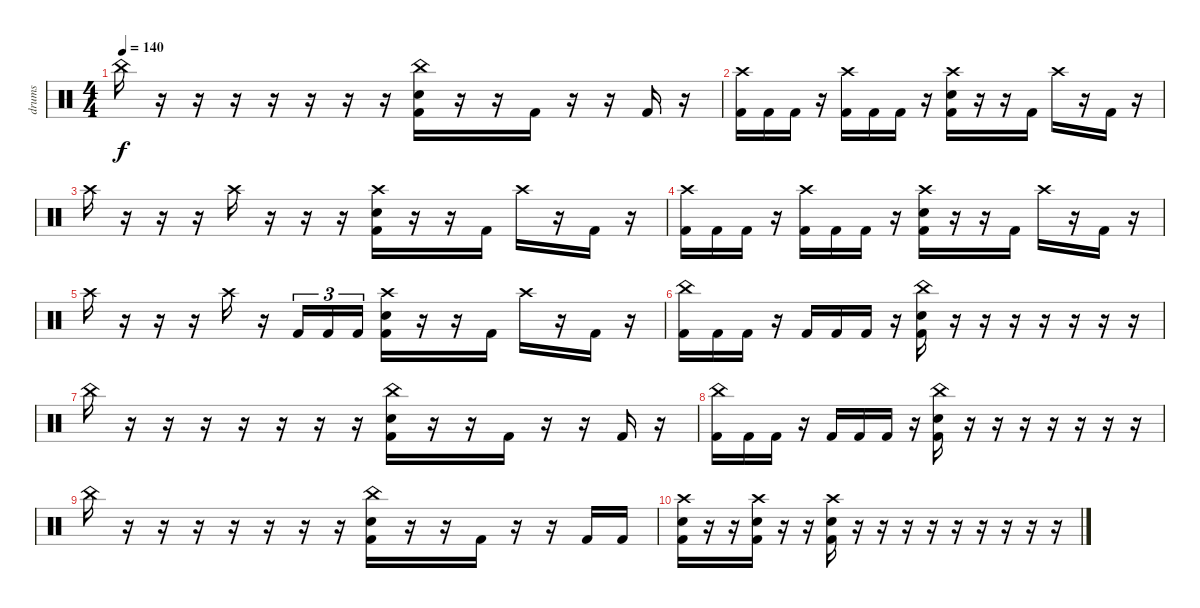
\track ("drums" "drums") {instrument percussion}
\staff {score}
\articulation defaults
\ts (4 4)
\tempo 140
\clef neutral
\ks c "China (hit)".16{dy f}
r.16 r.16 r.16 r.16 r.16 r.16 r.16 ("China (hit)" "Electric Snare (hit)" "Kick (hit) 2").16 r.16 r.16 "Kick (hit) 2".16 r.16 r.16 "Kick (hit) 2".16 r.16 |
("Kick (hit) 2" "Crash high (hit)").16 "Kick (hit) 2".16 "Kick (hit) 2".16 r.16 ("Kick (hit) 2" "Crash high (hit)").16 "Kick (hit) 2".16 "Kick (hit) 2".16 r.16 ("Kick (hit) 2" "Crash high (hit)" "Electric Snare (hit)").16 r.16 r.16 "Kick (hit) 2".16 "Crash high (hit)".16 r.16 "Kick (hit) 2".16 r.16 |
"Crash high (hit)".16 r.16 r.16 r.16 "Crash high (hit)".16 r.16 r.16 r.16 ("Crash high (hit)" "Electric Snare (hit)" "Kick (hit) 2").16 r.16 r.16 "Kick (hit) 2".16 "Crash high (hit)".16 r.16 "Kick (hit) 2".16 r.16 |
("Kick (hit) 2" "Crash high (hit)").16 "Kick (hit) 2".16 "Kick (hit) 2".16 r.16 ("Kick (hit) 2" "Crash high (hit)").16 "Kick (hit) 2".16 "Kick (hit) 2".16 r.16 ("Kick (hit) 2" "Crash high (hit)" "Electric Snare (hit)").16 r.16 r.16 "Kick (hit) 2".16 "Crash high (hit)".16 r.16 "Kick (hit) 2".16 r.16 |
"Crash high (hit)".16 r.16 r.16 r.16 "Crash high (hit)".16 r.16 "Kick (hit) 2".16{tu (3 2)} "Kick (hit) 2".16{tu (3 2)} "Kick (hit) 2".16{tu (3 2)} ("Crash high (hit)" "Electric Snare (hit)" "Kick (hit) 2").16 r.16 r.16 "Kick (hit) 2".16 "Crash high (hit)".16 r.16 "Kick (hit) 2".16 r.16 |
("Kick (hit) 2" "China (hit)").16 "Kick (hit) 2".16 "Kick (hit) 2".16 r.16 "Kick (hit) 2".16 "Kick (hit) 2".16 "Kick (hit) 2".16 r.16 ("Kick (hit) 2" "China (hit)" "Electric Snare (hit)").16 r.16 r.16 r.16 r.16 r.16 r.16 r.16 |
"China (hit)".16 r.16 r.16 r.16 r.16 r.16 r.16 r.16 ("China (hit)" "Electric Snare (hit)" "Kick (hit) 2").16 r.16 r.16 "Kick (hit) 2".16 r.16 r.16 "Kick (hit) 2".16 r.16 |
("Kick (hit) 2" "China (hit)").16 "Kick (hit) 2".16 "Kick (hit) 2".16 r.16 "Kick (hit) 2".16 "Kick (hit) 2".16 "Kick (hit) 2".16 r.16 ("Kick (hit) 2" "China (hit)" "Electric Snare (hit)").16 r.16 r.16 r.16 r.16 r.16 r.16 r.16 |
"China (hit)".16 r.16 r.16 r.16 r.16 r.16 r.16 r.16 ("China (hit)" "Electric Snare (hit)" "Kick (hit) 2").16 r.16 r.16 "Kick (hit) 2".16 r.16 r.16 "Kick (hit) 2".16 "Kick (hit) 2".16 |
("Electric Snare (hit)" "Crash high (hit)" "Kick (hit) 2").16 r.16 r.16 ("Electric Snare (hit)" "Crash high (hit)" "Kick (hit) 2").16 r.16 r.16 ("Electric Snare (hit)" "Crash high (hit)" "Kick (hit) 2").16 r.16 r.16 r.16 r.16 r.16 r.16 r.16 r.16 r.16
